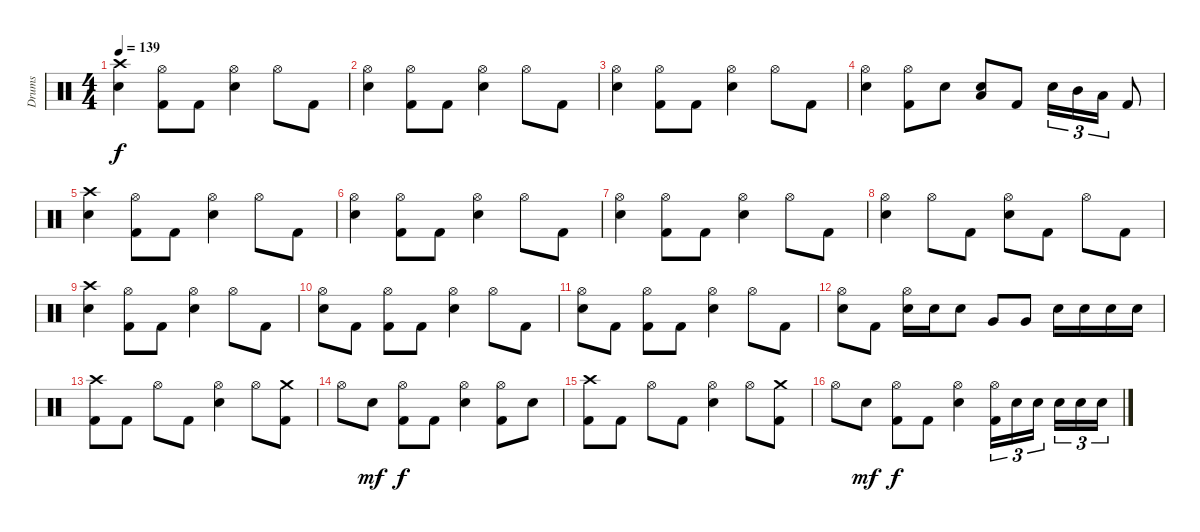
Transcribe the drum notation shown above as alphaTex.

\track ("Drums" "Drums") {instrument percussion}
\staff {score}
\articulation defaults
\ts (4 4)
\tempo 139
\clef neutral
\ks c
("Crash high (hit)" "Snare (hit) 2").4{dy f} ("Hi-Hat (open)" "Kick (hit) 2").8 "Kick (hit) 2".8 ("Hi-Hat (open)" "Snare (hit) 2").4 "Hi-Hat (open)".8 "Kick (hit) 2".8 |
("Hi-Hat (open)" "Snare (hit) 2").4 ("Hi-Hat (open)" "Kick (hit) 2").8 "Kick (hit) 2".8 ("Hi-Hat (open)" "Snare (hit) 2").4 "Hi-Hat (open)".8 "Kick (hit) 2".8 |
("Hi-Hat (open)" "Snare (hit) 2").4 ("Hi-Hat (open)" "Kick (hit) 2").8 "Kick (hit) 2".8 ("Hi-Hat (open)" "Snare (hit) 2").4 "Hi-Hat (open)".8 "Kick (hit) 2".8 |
("Hi-Hat (open)" "Snare (hit) 2").4 ("Hi-Hat (open)" "Kick (hit) 2").8 "Snare (hit) 2".8 ("Low Floor Tom (hit)" "Snare (hit) 2").8 "Kick (hit) 2".8 "Snare (hit) 2".16{tu (3 2)} "Mid Tom (hit)".16{tu (3 2)} "Low Tom (hit)".16{tu (3 2)} "Kick (hit) 2".8 |
("Crash high (hit)" "Snare (hit) 2").4 ("Hi-Hat (open)" "Kick (hit) 2").8 "Kick (hit) 2".8 ("Hi-Hat (open)" "Snare (hit) 2").4 "Hi-Hat (open)".8 "Kick (hit) 2".8 |
("Hi-Hat (open)" "Snare (hit) 2").4 ("Hi-Hat (open)" "Kick (hit) 2").8 "Kick (hit) 2".8 ("Hi-Hat (open)" "Snare (hit) 2").4 "Hi-Hat (open)".8 "Kick (hit) 2".8 |
("Hi-Hat (open)" "Snare (hit) 2").4 ("Hi-Hat (open)" "Kick (hit) 2").8 "Kick (hit) 2".8 ("Hi-Hat (open)" "Snare (hit) 2").4 "Hi-Hat (open)".8 "Kick (hit) 2".8 |
("Hi-Hat (open)" "Snare (hit) 2").4 "Hi-Hat (open)".8 "Kick (hit) 2".8 ("Hi-Hat (open)" "Snare (hit) 2").8 "Kick (hit) 2".8 "Hi-Hat (open)".8 "Kick (hit) 2".8 |
("Crash high (hit)" "Snare (hit) 2").4 ("Hi-Hat (open)" "Kick (hit) 2").8 "Kick (hit) 2".8 ("Hi-Hat (open)" "Snare (hit) 2").4 "Hi-Hat (open)".8 "Kick (hit) 2".8 |
("Hi-Hat (open)" "Snare (hit) 2").8 "Kick (hit) 2".8 ("Hi-Hat (open)" "Kick (hit) 2").8 "Kick (hit) 2".8 ("Hi-Hat (open)" "Snare (hit) 2").4 "Hi-Hat (open)".8 "Kick (hit) 2".8 |
("Hi-Hat (open)" "Snare (hit) 2").8 "Kick (hit) 2".8 ("Hi-Hat (open)" "Kick (hit) 2").8 "Kick (hit) 2".8 ("Hi-Hat (open)" "Snare (hit) 2").4 "Hi-Hat (open)".8 "Kick (hit) 2".8 |
("Hi-Hat (open)" "Snare (hit) 2").8 "Kick (hit) 2".8 ("Hi-Hat (open)" "Snare (hit) 2").16 "Snare (hit) 2".16 "Snare (hit) 2".8 "Very Low Tom (hit)".8 "Very Low Tom (hit)".8 "Snare (hit) 2".16 "Snare (hit) 2".16 "Snare (hit) 2".16 "Snare (hit) 2".16 |
("Crash high (hit)" "Kick (hit) 2").8 "Kick (hit) 2".8 "Hi-Hat (open)".8 "Kick (hit) 2".8 ("Hi-Hat (open)" "Snare (hit) 2").4 "Hi-Hat (open)".8 ("Crash medium (hit)" "Kick (hit) 2").8 |
"Hi-Hat (open)".8 "Snare (hit) 2".8{dy mf} ("Hi-Hat (open)" "Kick (hit) 2").8{dy f} "Kick (hit) 2".8 ("Hi-Hat (open)" "Snare (hit) 2").4 ("Hi-Hat (open)" "Kick (hit) 2").8 "Snare (hit) 2".8 |
("Crash high (hit)" "Kick (hit) 2").8 "Kick (hit) 2".8 "Hi-Hat (open)".8 "Kick (hit) 2".8 ("Hi-Hat (open)" "Snare (hit) 2").4 "Hi-Hat (open)".8 ("Crash medium (hit)" "Kick (hit) 2").8 |
"Hi-Hat (open)".8 "Snare (hit) 2".8{dy mf} ("Hi-Hat (open)" "Kick (hit) 2").8{dy f} "Kick (hit) 2".8 ("Hi-Hat (open)" "Snare (hit) 2").4 ("Hi-Hat (open)" "Kick (hit) 2").16{tu (3 2)} "Snare (hit) 2".16{tu (3 2)} "Snare (hit) 2".16{tu (3 2) beam splitsecondary} "Snare (hit) 2".16{tu (3 2)} "Snare (hit) 2".16{tu (3 2)} "Snare (hit) 2".16{tu (3 2)}
